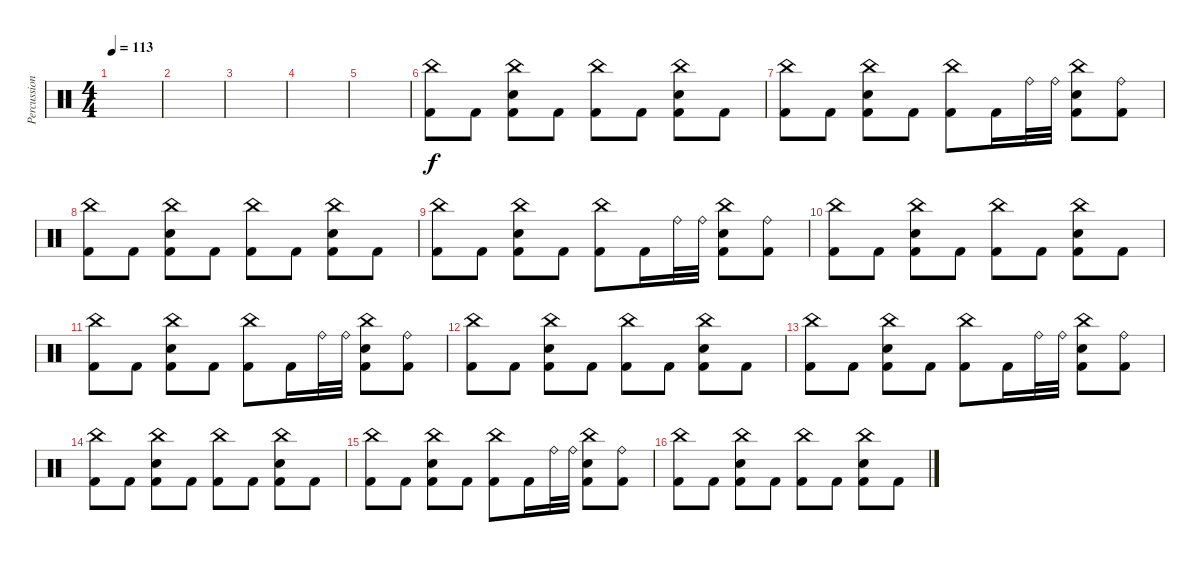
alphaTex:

\track ("Percussion" "Percussion") {instrument percussion}
\staff {score}
\articulation defaults
\ts (4 4)
\tempo 113
\clef neutral
\ks c
|
|
|
|
|
("China (hit)" "Kick (hit) 2").8 "Kick (hit) 2".8 ("China (hit)" "Electric Snare (hit)" "Kick (hit) 2").8 "Kick (hit) 2".8 ("China (hit)" "Kick (hit) 2").8 "Kick (hit) 2".8 ("China (hit)" "Electric Snare (hit)" "Kick (hit) 2").8 "Kick (hit) 2".8 |
("China (hit)" "Kick (hit) 2").8 "Kick (hit) 2".8 ("China (hit)" "Electric Snare (hit)" "Kick (hit) 2").8 "Kick (hit) 2".8 ("China (hit)" "Kick (hit) 2").8 "Kick (hit) 2".16 "Ride (bell)".32 "Ride (bell)".32 ("China (hit)" "Electric Snare (hit)" "Kick (hit) 2").8 ("Ride (bell)" "Kick (hit) 2").8 |
("China (hit)" "Kick (hit) 2").8 "Kick (hit) 2".8 ("China (hit)" "Electric Snare (hit)" "Kick (hit) 2").8 "Kick (hit) 2".8 ("China (hit)" "Kick (hit) 2").8 "Kick (hit) 2".8 ("China (hit)" "Electric Snare (hit)" "Kick (hit) 2").8 "Kick (hit) 2".8 |
("China (hit)" "Kick (hit) 2").8 "Kick (hit) 2".8 ("China (hit)" "Electric Snare (hit)" "Kick (hit) 2").8 "Kick (hit) 2".8 ("China (hit)" "Kick (hit) 2").8 "Kick (hit) 2".16 "Ride (bell)".32 "Ride (bell)".32 ("China (hit)" "Electric Snare (hit)" "Kick (hit) 2").8 ("Ride (bell)" "Kick (hit) 2").8 |
("China (hit)" "Kick (hit) 2").8 "Kick (hit) 2".8 ("China (hit)" "Electric Snare (hit)" "Kick (hit) 2").8 "Kick (hit) 2".8 ("China (hit)" "Kick (hit) 2").8 "Kick (hit) 2".8 ("China (hit)" "Electric Snare (hit)" "Kick (hit) 2").8 "Kick (hit) 2".8 |
("China (hit)" "Kick (hit) 2").8 "Kick (hit) 2".8 ("China (hit)" "Electric Snare (hit)" "Kick (hit) 2").8 "Kick (hit) 2".8 ("China (hit)" "Kick (hit) 2").8 "Kick (hit) 2".16 "Ride (bell)".32 "Ride (bell)".32 ("China (hit)" "Electric Snare (hit)" "Kick (hit) 2").8 ("Ride (bell)" "Kick (hit) 2").8 |
("China (hit)" "Kick (hit) 2").8 "Kick (hit) 2".8 ("China (hit)" "Electric Snare (hit)" "Kick (hit) 2").8 "Kick (hit) 2".8 ("China (hit)" "Kick (hit) 2").8 "Kick (hit) 2".8 ("China (hit)" "Electric Snare (hit)" "Kick (hit) 2").8 "Kick (hit) 2".8 |
("China (hit)" "Kick (hit) 2").8 "Kick (hit) 2".8 ("China (hit)" "Electric Snare (hit)" "Kick (hit) 2").8 "Kick (hit) 2".8 ("China (hit)" "Kick (hit) 2").8 "Kick (hit) 2".16 "Ride (bell)".32 "Ride (bell)".32 ("China (hit)" "Electric Snare (hit)" "Kick (hit) 2").8 ("Ride (bell)" "Kick (hit) 2").8 |
("China (hit)" "Kick (hit) 2").8 "Kick (hit) 2".8 ("China (hit)" "Electric Snare (hit)" "Kick (hit) 2").8 "Kick (hit) 2".8 ("China (hit)" "Kick (hit) 2").8 "Kick (hit) 2".8 ("China (hit)" "Electric Snare (hit)" "Kick (hit) 2").8 "Kick (hit) 2".8 |
("China (hit)" "Kick (hit) 2").8 "Kick (hit) 2".8 ("China (hit)" "Electric Snare (hit)" "Kick (hit) 2").8 "Kick (hit) 2".8 ("China (hit)" "Kick (hit) 2").8 "Kick (hit) 2".16 "Ride (bell)".32 "Ride (bell)".32 ("China (hit)" "Electric Snare (hit)" "Kick (hit) 2").8 ("Ride (bell)" "Kick (hit) 2").8 |
("China (hit)" "Kick (hit) 2").8 "Kick (hit) 2".8 ("China (hit)" "Electric Snare (hit)" "Kick (hit) 2").8 "Kick (hit) 2".8 ("China (hit)" "Kick (hit) 2").8 "Kick (hit) 2".8 ("China (hit)" "Electric Snare (hit)" "Kick (hit) 2").8 "Kick (hit) 2".8
